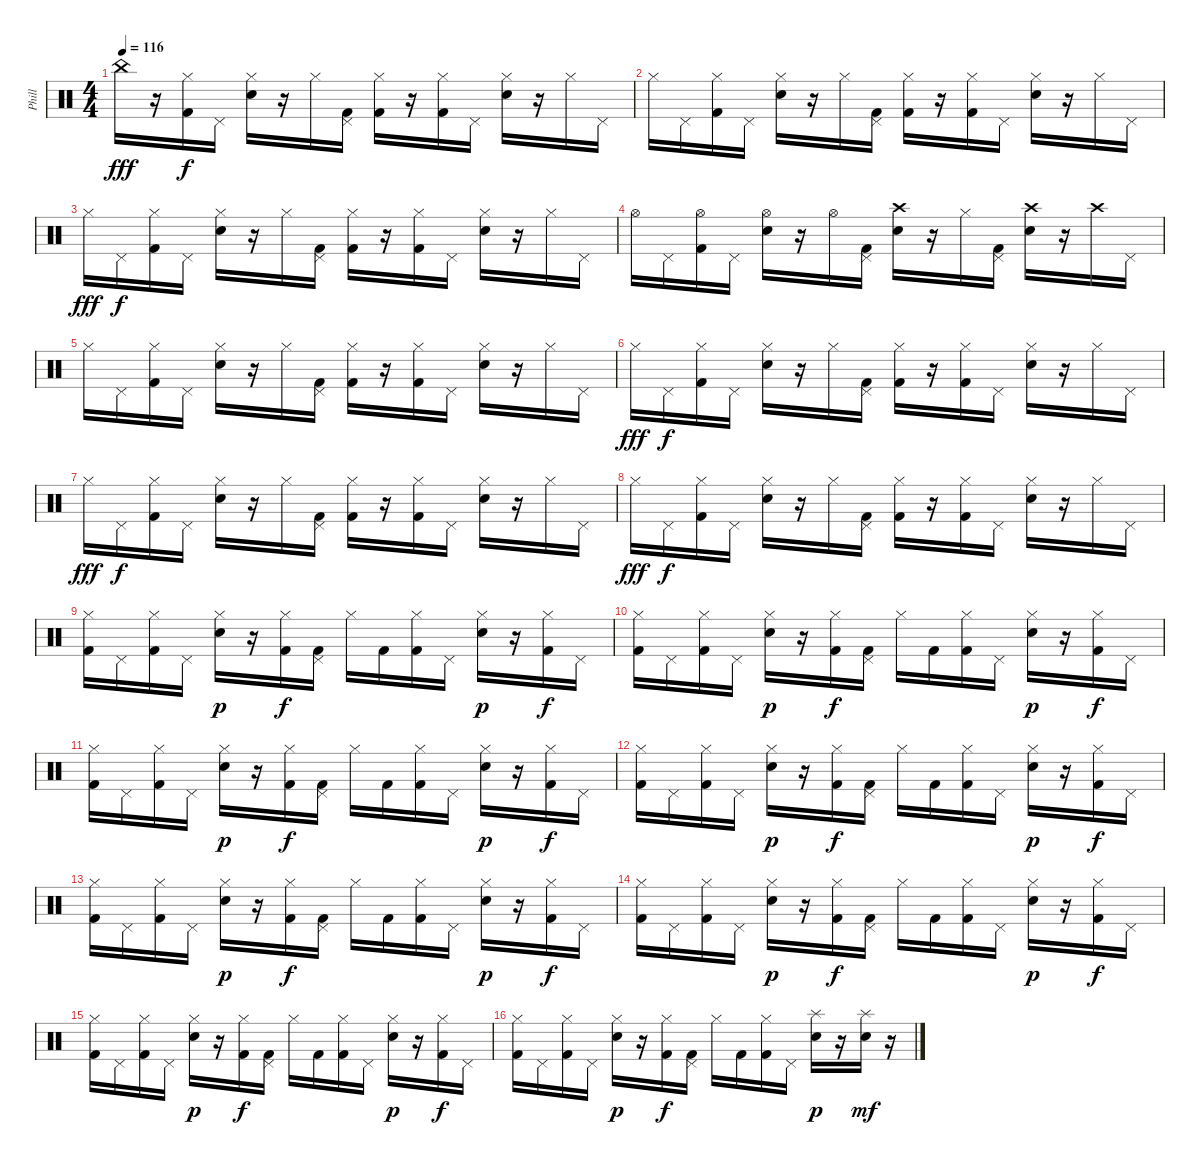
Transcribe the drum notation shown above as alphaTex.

\track ("Phill" "Phill") {instrument percussion}
\staff {score}
\articulation defaults
\ts (4 4)
\tempo 116
\clef neutral
\ks c "China (hit)".16{dy fff}
r.16 ("Hi-Hat (closed)" "Kick (hit) 2").16{dy f} "Pedal Hi-Hat (hit)".16 ("Hi-Hat (closed)" "Electric Snare (hit)").16 r.16 "Hi-Hat (closed)".16 ("Pedal Hi-Hat (hit)" "Kick (hit) 2").16 ("Hi-Hat (closed)" "Kick (hit) 2").16 r.16 ("Hi-Hat (closed)" "Kick (hit) 2").16 "Pedal Hi-Hat (hit)".16 ("Hi-Hat (closed)" "Electric Snare (hit)").16 r.16 "Hi-Hat (closed)".16 "Pedal Hi-Hat (hit)".16 |
"Hi-Hat (closed)".16 "Pedal Hi-Hat (hit)".16 ("Hi-Hat (closed)" "Kick (hit) 2").16 "Pedal Hi-Hat (hit)".16 ("Hi-Hat (closed)" "Electric Snare (hit)").16 r.16 "Hi-Hat (closed)".16 ("Pedal Hi-Hat (hit)" "Kick (hit) 2").16 ("Hi-Hat (closed)" "Kick (hit) 2").16 r.16 ("Hi-Hat (closed)" "Kick (hit) 2").16 "Pedal Hi-Hat (hit)".16 ("Hi-Hat (closed)" "Electric Snare (hit)").16 r.16 "Hi-Hat (closed)".16 "Pedal Hi-Hat (hit)".16 |
"Hi-Hat (closed)".16{dy fff} "Pedal Hi-Hat (hit)".16{dy f} ("Hi-Hat (closed)" "Kick (hit) 2").16 "Pedal Hi-Hat (hit)".16 ("Hi-Hat (closed)" "Electric Snare (hit)").16 r.16 "Hi-Hat (closed)".16 ("Pedal Hi-Hat (hit)" "Kick (hit) 2").16 ("Hi-Hat (closed)" "Kick (hit) 2").16 r.16 ("Hi-Hat (closed)" "Kick (hit) 2").16 "Pedal Hi-Hat (hit)".16 ("Hi-Hat (closed)" "Electric Snare (hit)").16 r.16 "Hi-Hat (closed)".16 "Pedal Hi-Hat (hit)".16 |
"Hi-Hat (open)".16 "Pedal Hi-Hat (hit)".16 ("Hi-Hat (open)" "Kick (hit) 2").16 "Pedal Hi-Hat (hit)".16 ("Hi-Hat (open)" "Electric Snare (hit)").16 r.16 "Hi-Hat (open)".16 ("Pedal Hi-Hat (hit)" "Kick (hit) 2").16 ("Crash high (hit)" "Electric Snare (hit)").16 r.16 "Hi-Hat (closed)".16 ("Pedal Hi-Hat (hit)" "Kick (hit) 2").16 ("Crash high (hit)" "Electric Snare (hit)").16 r.16 "Crash high (hit)".16 "Pedal Hi-Hat (hit)".16 |
"Hi-Hat (closed)".16 "Pedal Hi-Hat (hit)".16 ("Hi-Hat (closed)" "Kick (hit) 2").16 "Pedal Hi-Hat (hit)".16 ("Hi-Hat (closed)" "Electric Snare (hit)").16 r.16 "Hi-Hat (closed)".16 ("Pedal Hi-Hat (hit)" "Kick (hit) 2").16 ("Hi-Hat (closed)" "Kick (hit) 2").16 r.16 ("Hi-Hat (closed)" "Kick (hit) 2").16 "Pedal Hi-Hat (hit)".16 ("Hi-Hat (closed)" "Electric Snare (hit)").16 r.16 "Hi-Hat (closed)".16 "Pedal Hi-Hat (hit)".16 |
"Hi-Hat (closed)".16{dy fff} "Pedal Hi-Hat (hit)".16{dy f} ("Hi-Hat (closed)" "Kick (hit) 2").16 "Pedal Hi-Hat (hit)".16 ("Hi-Hat (closed)" "Electric Snare (hit)").16 r.16 "Hi-Hat (closed)".16 ("Pedal Hi-Hat (hit)" "Kick (hit) 2").16 ("Hi-Hat (closed)" "Kick (hit) 2").16 r.16 ("Hi-Hat (closed)" "Kick (hit) 2").16 "Pedal Hi-Hat (hit)".16 ("Hi-Hat (closed)" "Electric Snare (hit)").16 r.16 "Hi-Hat (closed)".16 "Pedal Hi-Hat (hit)".16 |
"Hi-Hat (closed)".16{dy fff} "Pedal Hi-Hat (hit)".16{dy f} ("Hi-Hat (closed)" "Kick (hit) 2").16 "Pedal Hi-Hat (hit)".16 ("Hi-Hat (closed)" "Electric Snare (hit)").16 r.16 "Hi-Hat (closed)".16 ("Pedal Hi-Hat (hit)" "Kick (hit) 2").16 ("Hi-Hat (closed)" "Kick (hit) 2").16 r.16 ("Hi-Hat (closed)" "Kick (hit) 2").16 "Pedal Hi-Hat (hit)".16 ("Hi-Hat (closed)" "Electric Snare (hit)").16 r.16 "Hi-Hat (closed)".16 "Pedal Hi-Hat (hit)".16 |
"Hi-Hat (closed)".16{dy fff} "Pedal Hi-Hat (hit)".16{dy f} ("Hi-Hat (closed)" "Kick (hit) 2").16 "Pedal Hi-Hat (hit)".16 ("Hi-Hat (closed)" "Electric Snare (hit)").16 r.16 "Hi-Hat (closed)".16 ("Pedal Hi-Hat (hit)" "Kick (hit) 2").16 ("Hi-Hat (closed)" "Kick (hit) 2").16 r.16 ("Hi-Hat (closed)" "Kick (hit) 2").16 "Pedal Hi-Hat (hit)".16 ("Hi-Hat (closed)" "Electric Snare (hit)").16 r.16 "Hi-Hat (closed)".16 "Pedal Hi-Hat (hit)".16 |
("Hi-Hat (closed)" "Kick (hit) 2").16 "Pedal Hi-Hat (hit)".16 ("Hi-Hat (closed)" "Kick (hit) 2").16 "Pedal Hi-Hat (hit)".16 ("Hi-Hat (closed)" "Electric Snare (hit)").16{dy p} r.16 ("Hi-Hat (closed)" "Kick (hit) 2").16{dy f} ("Pedal Hi-Hat (hit)" "Kick (hit) 2").16 "Hi-Hat (closed)".16 "Kick (hit) 2".16 ("Hi-Hat (closed)" "Kick (hit) 2").16 "Pedal Hi-Hat (hit)".16 ("Hi-Hat (closed)" "Electric Snare (hit)").16{dy p} r.16 ("Hi-Hat (closed)" "Kick (hit) 2").16{dy f} "Pedal Hi-Hat (hit)".16 |
("Hi-Hat (closed)" "Kick (hit) 2").16 "Pedal Hi-Hat (hit)".16 ("Hi-Hat (closed)" "Kick (hit) 2").16 "Pedal Hi-Hat (hit)".16 ("Hi-Hat (closed)" "Electric Snare (hit)").16{dy p} r.16 ("Hi-Hat (closed)" "Kick (hit) 2").16{dy f} ("Pedal Hi-Hat (hit)" "Kick (hit) 2").16 "Hi-Hat (closed)".16 "Kick (hit) 2".16 ("Hi-Hat (closed)" "Kick (hit) 2").16 "Pedal Hi-Hat (hit)".16 ("Hi-Hat (closed)" "Electric Snare (hit)").16{dy p} r.16 ("Hi-Hat (closed)" "Kick (hit) 2").16{dy f} "Pedal Hi-Hat (hit)".16 |
("Hi-Hat (closed)" "Kick (hit) 2").16 "Pedal Hi-Hat (hit)".16 ("Hi-Hat (closed)" "Kick (hit) 2").16 "Pedal Hi-Hat (hit)".16 ("Hi-Hat (closed)" "Electric Snare (hit)").16{dy p} r.16 ("Hi-Hat (closed)" "Kick (hit) 2").16{dy f} ("Pedal Hi-Hat (hit)" "Kick (hit) 2").16 "Hi-Hat (closed)".16 "Kick (hit) 2".16 ("Hi-Hat (closed)" "Kick (hit) 2").16 "Pedal Hi-Hat (hit)".16 ("Hi-Hat (closed)" "Electric Snare (hit)").16{dy p} r.16 ("Hi-Hat (closed)" "Kick (hit) 2").16{dy f} "Pedal Hi-Hat (hit)".16 |
("Hi-Hat (closed)" "Kick (hit) 2").16 "Pedal Hi-Hat (hit)".16 ("Hi-Hat (closed)" "Kick (hit) 2").16 "Pedal Hi-Hat (hit)".16 ("Hi-Hat (closed)" "Electric Snare (hit)").16{dy p} r.16 ("Hi-Hat (closed)" "Kick (hit) 2").16{dy f} ("Pedal Hi-Hat (hit)" "Kick (hit) 2").16 "Hi-Hat (closed)".16 "Kick (hit) 2".16 ("Hi-Hat (closed)" "Kick (hit) 2").16 "Pedal Hi-Hat (hit)".16 ("Hi-Hat (closed)" "Electric Snare (hit)").16{dy p} r.16 ("Hi-Hat (closed)" "Kick (hit) 2").16{dy f} "Pedal Hi-Hat (hit)".16 |
("Hi-Hat (closed)" "Kick (hit) 2").16 "Pedal Hi-Hat (hit)".16 ("Hi-Hat (closed)" "Kick (hit) 2").16 "Pedal Hi-Hat (hit)".16 ("Hi-Hat (closed)" "Electric Snare (hit)").16{dy p} r.16 ("Hi-Hat (closed)" "Kick (hit) 2").16{dy f} ("Pedal Hi-Hat (hit)" "Kick (hit) 2").16 "Hi-Hat (closed)".16 "Kick (hit) 2".16 ("Hi-Hat (closed)" "Kick (hit) 2").16 "Pedal Hi-Hat (hit)".16 ("Hi-Hat (closed)" "Electric Snare (hit)").16{dy p} r.16 ("Hi-Hat (closed)" "Kick (hit) 2").16{dy f} "Pedal Hi-Hat (hit)".16 |
("Hi-Hat (closed)" "Kick (hit) 2").16 "Pedal Hi-Hat (hit)".16 ("Hi-Hat (closed)" "Kick (hit) 2").16 "Pedal Hi-Hat (hit)".16 ("Hi-Hat (closed)" "Electric Snare (hit)").16{dy p} r.16 ("Hi-Hat (closed)" "Kick (hit) 2").16{dy f} ("Pedal Hi-Hat (hit)" "Kick (hit) 2").16 "Hi-Hat (closed)".16 "Kick (hit) 2".16 ("Hi-Hat (closed)" "Kick (hit) 2").16 "Pedal Hi-Hat (hit)".16 ("Hi-Hat (closed)" "Electric Snare (hit)").16{dy p} r.16 ("Hi-Hat (closed)" "Kick (hit) 2").16{dy f} "Pedal Hi-Hat (hit)".16 |
("Hi-Hat (closed)" "Kick (hit) 2").16 "Pedal Hi-Hat (hit)".16 ("Hi-Hat (closed)" "Kick (hit) 2").16 "Pedal Hi-Hat (hit)".16 ("Hi-Hat (closed)" "Electric Snare (hit)").16{dy p} r.16 ("Hi-Hat (closed)" "Kick (hit) 2").16{dy f} ("Pedal Hi-Hat (hit)" "Kick (hit) 2").16 "Hi-Hat (closed)".16 "Kick (hit) 2".16 ("Hi-Hat (closed)" "Kick (hit) 2").16 "Pedal Hi-Hat (hit)".16 ("Hi-Hat (closed)" "Electric Snare (hit)").16{dy p} r.16 ("Hi-Hat (closed)" "Kick (hit) 2").16{dy f} "Pedal Hi-Hat (hit)".16 |
("Hi-Hat (closed)" "Kick (hit) 2").16 "Pedal Hi-Hat (hit)".16 ("Hi-Hat (closed)" "Kick (hit) 2").16 "Pedal Hi-Hat (hit)".16 ("Hi-Hat (closed)" "Electric Snare (hit)").16{dy p} r.16 ("Hi-Hat (closed)" "Kick (hit) 2").16{dy f} ("Pedal Hi-Hat (hit)" "Kick (hit) 2").16 "Hi-Hat (closed)".16 "Kick (hit) 2".16 ("Hi-Hat (closed)" "Kick (hit) 2").16 "Pedal Hi-Hat (hit)".16 ("Splash (hit)" "Electric Snare (hit)").16{dy p} r.16 ("Splash (hit)" "Electric Snare (hit)").16{dy mf} r.16
